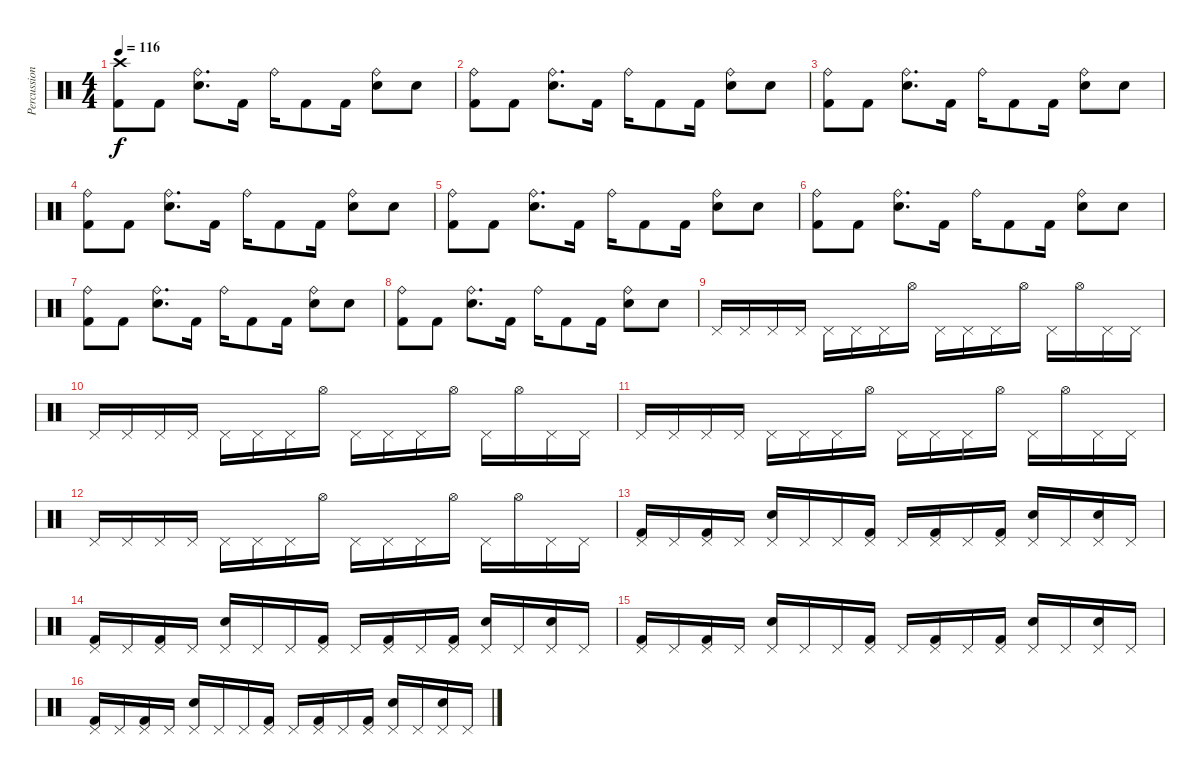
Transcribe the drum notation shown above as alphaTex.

\track ("Percussions" "Percussion") {instrument percussion}
\staff {score}
\articulation defaults
\ts (4 4)
\tempo 116
\clef neutral
\ks c
("Crash high (hit)" "Kick (hit) 2").8{dy f} "Kick (hit) 2".8 ("Ride (bell)" "Snare (hit) 2").8{d} "Kick (hit) 2".16 "Ride (bell)".16 "Kick (hit) 2".8 "Kick (hit) 2".16 ("Ride (bell)" "Snare (hit) 2").8 "Snare (hit) 2".8 |
("Ride (bell)" "Kick (hit) 2").8 "Kick (hit) 2".8 ("Ride (bell)" "Snare (hit) 2").8{d} "Kick (hit) 2".16 "Ride (bell)".16 "Kick (hit) 2".8 "Kick (hit) 2".16 ("Ride (bell)" "Snare (hit) 2").8 "Snare (hit) 2".8 |
("Ride (bell)" "Kick (hit) 2").8 "Kick (hit) 2".8 ("Ride (bell)" "Snare (hit) 2").8{d} "Kick (hit) 2".16 "Ride (bell)".16 "Kick (hit) 2".8 "Kick (hit) 2".16 ("Ride (bell)" "Snare (hit) 2").8 "Snare (hit) 2".8 |
("Ride (bell)" "Kick (hit) 2").8 "Kick (hit) 2".8 ("Ride (bell)" "Snare (hit) 2").8{d} "Kick (hit) 2".16 "Ride (bell)".16 "Kick (hit) 2".8 "Kick (hit) 2".16 ("Ride (bell)" "Snare (hit) 2").8 "Snare (hit) 2".8 |
("Ride (bell)" "Kick (hit) 2").8 "Kick (hit) 2".8 ("Ride (bell)" "Snare (hit) 2").8{d} "Kick (hit) 2".16 "Ride (bell)".16 "Kick (hit) 2".8 "Kick (hit) 2".16 ("Ride (bell)" "Snare (hit) 2").8 "Snare (hit) 2".8 |
("Ride (bell)" "Kick (hit) 2").8 "Kick (hit) 2".8 ("Ride (bell)" "Snare (hit) 2").8{d} "Kick (hit) 2".16 "Ride (bell)".16 "Kick (hit) 2".8 "Kick (hit) 2".16 ("Ride (bell)" "Snare (hit) 2").8 "Snare (hit) 2".8 |
("Ride (bell)" "Kick (hit) 2").8 "Kick (hit) 2".8 ("Ride (bell)" "Snare (hit) 2").8{d} "Kick (hit) 2".16 "Ride (bell)".16 "Kick (hit) 2".8 "Kick (hit) 2".16 ("Ride (bell)" "Snare (hit) 2").8 "Snare (hit) 2".8 |
("Ride (bell)" "Kick (hit) 2").8 "Kick (hit) 2".8 ("Ride (bell)" "Snare (hit) 2").8{d} "Kick (hit) 2".16 "Ride (bell)".16 "Kick (hit) 2".8 "Kick (hit) 2".16 ("Ride (bell)" "Snare (hit) 2").8 "Snare (hit) 2".8 |
"Pedal Hi-Hat (hit)".16 "Pedal Hi-Hat (hit)".16 "Pedal Hi-Hat (hit)".16 "Pedal Hi-Hat (hit)".16 "Pedal Hi-Hat (hit)".16 "Pedal Hi-Hat (hit)".16 "Pedal Hi-Hat (hit)".16 "Hi-Hat (open)".16 "Pedal Hi-Hat (hit)".16 "Pedal Hi-Hat (hit)".16 "Pedal Hi-Hat (hit)".16 "Hi-Hat (open)".16 "Pedal Hi-Hat (hit)".16 "Hi-Hat (open)".16 "Pedal Hi-Hat (hit)".16 "Pedal Hi-Hat (hit)".16 |
"Pedal Hi-Hat (hit)".16 "Pedal Hi-Hat (hit)".16 "Pedal Hi-Hat (hit)".16 "Pedal Hi-Hat (hit)".16 "Pedal Hi-Hat (hit)".16 "Pedal Hi-Hat (hit)".16 "Pedal Hi-Hat (hit)".16 "Hi-Hat (open)".16 "Pedal Hi-Hat (hit)".16 "Pedal Hi-Hat (hit)".16 "Pedal Hi-Hat (hit)".16 "Hi-Hat (open)".16 "Pedal Hi-Hat (hit)".16 "Hi-Hat (open)".16 "Pedal Hi-Hat (hit)".16 "Pedal Hi-Hat (hit)".16 |
"Pedal Hi-Hat (hit)".16 "Pedal Hi-Hat (hit)".16 "Pedal Hi-Hat (hit)".16 "Pedal Hi-Hat (hit)".16 "Pedal Hi-Hat (hit)".16 "Pedal Hi-Hat (hit)".16 "Pedal Hi-Hat (hit)".16 "Hi-Hat (open)".16 "Pedal Hi-Hat (hit)".16 "Pedal Hi-Hat (hit)".16 "Pedal Hi-Hat (hit)".16 "Hi-Hat (open)".16 "Pedal Hi-Hat (hit)".16 "Hi-Hat (open)".16 "Pedal Hi-Hat (hit)".16 "Pedal Hi-Hat (hit)".16 |
"Pedal Hi-Hat (hit)".16 "Pedal Hi-Hat (hit)".16 "Pedal Hi-Hat (hit)".16 "Pedal Hi-Hat (hit)".16 "Pedal Hi-Hat (hit)".16 "Pedal Hi-Hat (hit)".16 "Pedal Hi-Hat (hit)".16 "Hi-Hat (open)".16 "Pedal Hi-Hat (hit)".16 "Pedal Hi-Hat (hit)".16 "Pedal Hi-Hat (hit)".16 "Hi-Hat (open)".16 "Pedal Hi-Hat (hit)".16 "Hi-Hat (open)".16 "Pedal Hi-Hat (hit)".16 "Pedal Hi-Hat (hit)".16 |
("Pedal Hi-Hat (hit)" "Kick (hit) 2").16 "Pedal Hi-Hat (hit)".16 ("Pedal Hi-Hat (hit)" "Kick (hit) 2").16 "Pedal Hi-Hat (hit)".16 ("Pedal Hi-Hat (hit)" "Snare (hit) 2").16 "Pedal Hi-Hat (hit)".16 "Pedal Hi-Hat (hit)".16 ("Pedal Hi-Hat (hit)" "Kick (hit) 2").16 "Pedal Hi-Hat (hit)".16 ("Pedal Hi-Hat (hit)" "Kick (hit) 2").16 "Pedal Hi-Hat (hit)".16 ("Pedal Hi-Hat (hit)" "Kick (hit) 2").16 ("Pedal Hi-Hat (hit)" "Snare (hit) 2").16 "Pedal Hi-Hat (hit)".16 ("Pedal Hi-Hat (hit)" "Snare (hit) 2").16 "Pedal Hi-Hat (hit)".16 |
("Pedal Hi-Hat (hit)" "Kick (hit) 2").16 "Pedal Hi-Hat (hit)".16 ("Pedal Hi-Hat (hit)" "Kick (hit) 2").16 "Pedal Hi-Hat (hit)".16 ("Pedal Hi-Hat (hit)" "Snare (hit) 2").16 "Pedal Hi-Hat (hit)".16 "Pedal Hi-Hat (hit)".16 ("Pedal Hi-Hat (hit)" "Kick (hit) 2").16 "Pedal Hi-Hat (hit)".16 ("Pedal Hi-Hat (hit)" "Kick (hit) 2").16 "Pedal Hi-Hat (hit)".16 ("Pedal Hi-Hat (hit)" "Kick (hit) 2").16 ("Pedal Hi-Hat (hit)" "Snare (hit) 2").16 "Pedal Hi-Hat (hit)".16 ("Pedal Hi-Hat (hit)" "Snare (hit) 2").16 "Pedal Hi-Hat (hit)".16 |
("Pedal Hi-Hat (hit)" "Kick (hit) 2").16 "Pedal Hi-Hat (hit)".16 ("Pedal Hi-Hat (hit)" "Kick (hit) 2").16 "Pedal Hi-Hat (hit)".16 ("Pedal Hi-Hat (hit)" "Snare (hit) 2").16 "Pedal Hi-Hat (hit)".16 "Pedal Hi-Hat (hit)".16 ("Pedal Hi-Hat (hit)" "Kick (hit) 2").16 "Pedal Hi-Hat (hit)".16 ("Pedal Hi-Hat (hit)" "Kick (hit) 2").16 "Pedal Hi-Hat (hit)".16 ("Pedal Hi-Hat (hit)" "Kick (hit) 2").16 ("Pedal Hi-Hat (hit)" "Snare (hit) 2").16 "Pedal Hi-Hat (hit)".16 ("Pedal Hi-Hat (hit)" "Snare (hit) 2").16 "Pedal Hi-Hat (hit)".16 |
("Pedal Hi-Hat (hit)" "Kick (hit) 2").16 "Pedal Hi-Hat (hit)".16 ("Pedal Hi-Hat (hit)" "Kick (hit) 2").16 "Pedal Hi-Hat (hit)".16 ("Pedal Hi-Hat (hit)" "Snare (hit) 2").16 "Pedal Hi-Hat (hit)".16 "Pedal Hi-Hat (hit)".16 ("Pedal Hi-Hat (hit)" "Kick (hit) 2").16 "Pedal Hi-Hat (hit)".16 ("Pedal Hi-Hat (hit)" "Kick (hit) 2").16 "Pedal Hi-Hat (hit)".16 ("Pedal Hi-Hat (hit)" "Kick (hit) 2").16 ("Pedal Hi-Hat (hit)" "Snare (hit) 2").16 "Pedal Hi-Hat (hit)".16 ("Pedal Hi-Hat (hit)" "Snare (hit) 2").16 "Pedal Hi-Hat (hit)".16
